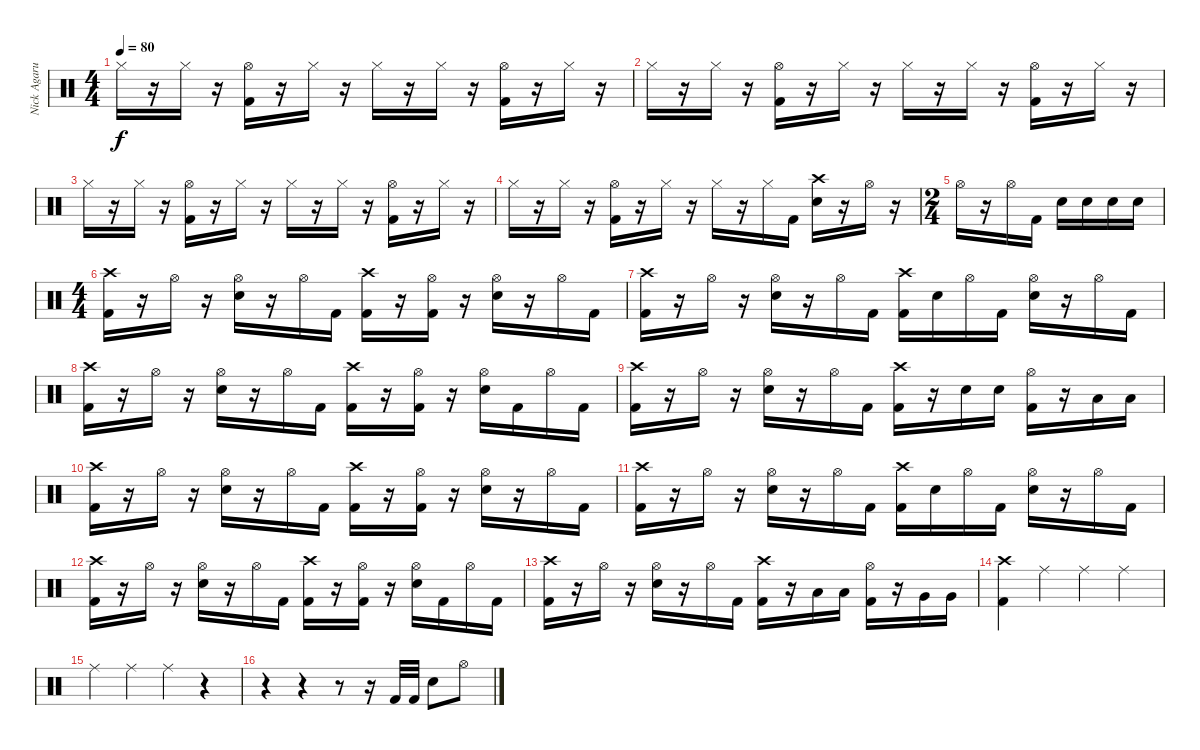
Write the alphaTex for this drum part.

\track ("Nick Agarua" "Nick Agaru") {instrument percussion}
\staff {score}
\articulation defaults
\ts (4 4)
\tempo 80
\clef neutral
\ks c "Hi-Hat (closed)".16{dy f}
r.16 "Hi-Hat (closed)".16 r.16 ("Hi-Hat (open)" "Kick (hit) 2").16 r.16 "Hi-Hat (closed)".16 r.16 "Hi-Hat (closed)".16 r.16 "Hi-Hat (closed)".16 r.16 ("Hi-Hat (open)" "Kick (hit) 2").16 r.16 "Hi-Hat (closed)".16 r.16 |
"Hi-Hat (closed)".16 r.16 "Hi-Hat (closed)".16 r.16 ("Hi-Hat (open)" "Kick (hit) 2").16 r.16 "Hi-Hat (closed)".16 r.16 "Hi-Hat (closed)".16 r.16 "Hi-Hat (closed)".16 r.16 ("Hi-Hat (open)" "Kick (hit) 2").16 r.16 "Hi-Hat (closed)".16 r.16 |
"Hi-Hat (closed)".16 r.16 "Hi-Hat (closed)".16 r.16 ("Hi-Hat (open)" "Kick (hit) 2").16 r.16 "Hi-Hat (closed)".16 r.16 "Hi-Hat (closed)".16 r.16 "Hi-Hat (closed)".16 r.16 ("Hi-Hat (open)" "Kick (hit) 2").16 r.16 "Hi-Hat (closed)".16 r.16 |
"Hi-Hat (closed)".16 r.16 "Hi-Hat (closed)".16 r.16 ("Hi-Hat (open)" "Kick (hit) 2").16 r.16 "Hi-Hat (closed)".16 r.16 "Hi-Hat (closed)".16 r.16 "Hi-Hat (closed)".16 "Kick (hit) 2".16 ("Crash high (hit)" "Electric Snare (hit)").16 r.16 "Hi-Hat (open)".16 r.16 |
\ts (2 4)
"Hi-Hat (open)".16 r.16 "Hi-Hat (open)".16 "Kick (hit) 2".16 "Electric Snare (hit)".16 "Electric Snare (hit)".16 "Electric Snare (hit)".16 "Electric Snare (hit)".16 |
\ts (4 4)
("Crash high (hit)" "Kick (hit) 2").16 r.16 "Hi-Hat (open)".16 r.16 ("Hi-Hat (open)" "Electric Snare (hit)").16 r.16 "Hi-Hat (open)".16 "Kick (hit) 2".16 ("Crash high (hit)" "Kick (hit) 2").16 r.16 ("Hi-Hat (open)" "Kick (hit) 2").16 r.16 ("Hi-Hat (open)" "Electric Snare (hit)").16 r.16 "Hi-Hat (open)".16 "Kick (hit) 2".16 |
("Crash high (hit)" "Kick (hit) 2").16 r.16 "Hi-Hat (open)".16 r.16 ("Hi-Hat (open)" "Electric Snare (hit)").16 r.16 "Hi-Hat (open)".16 "Kick (hit) 2".16 ("Crash high (hit)" "Kick (hit) 2").16 "Electric Snare (hit)".16 "Hi-Hat (open)".16 "Kick (hit) 2".16 ("Hi-Hat (open)" "Electric Snare (hit)").16 r.16 "Hi-Hat (open)".16 "Kick (hit) 2".16 |
("Crash high (hit)" "Kick (hit) 2").16 r.16 "Hi-Hat (open)".16 r.16 ("Hi-Hat (open)" "Electric Snare (hit)").16 r.16 "Hi-Hat (open)".16 "Kick (hit) 2".16 ("Crash high (hit)" "Kick (hit) 2").16 r.16 ("Hi-Hat (open)" "Kick (hit) 2").16 r.16 ("Hi-Hat (open)" "Electric Snare (hit)").16 "Kick (hit) 2".16 "Hi-Hat (open)".16 "Kick (hit) 2".16 |
("Crash high (hit)" "Kick (hit) 2").16 r.16 "Hi-Hat (open)".16 r.16 ("Hi-Hat (open)" "Electric Snare (hit)").16 r.16 "Hi-Hat (open)".16 "Kick (hit) 2".16 ("Crash high (hit)" "Kick (hit) 2").16 r.16 "Electric Snare (hit)".16 "Electric Snare (hit)".16 ("Hi-Hat (open)" "Kick (hit) 2").16 r.16 "Low Tom (hit)".16 "Low Tom (hit)".16 |
("Crash high (hit)" "Kick (hit) 2").16 r.16 "Hi-Hat (open)".16 r.16 ("Hi-Hat (open)" "Electric Snare (hit)").16 r.16 "Hi-Hat (open)".16 "Kick (hit) 2".16 ("Crash high (hit)" "Kick (hit) 2").16 r.16 ("Hi-Hat (open)" "Kick (hit) 2").16 r.16 ("Hi-Hat (open)" "Electric Snare (hit)").16 r.16 "Hi-Hat (open)".16 "Kick (hit) 2".16 |
("Crash high (hit)" "Kick (hit) 2").16 r.16 "Hi-Hat (open)".16 r.16 ("Hi-Hat (open)" "Electric Snare (hit)").16 r.16 "Hi-Hat (open)".16 "Kick (hit) 2".16 ("Crash high (hit)" "Kick (hit) 2").16 "Electric Snare (hit)".16 "Hi-Hat (open)".16 "Kick (hit) 2".16 ("Hi-Hat (open)" "Electric Snare (hit)").16 r.16 "Hi-Hat (open)".16 "Kick (hit) 2".16 |
("Crash high (hit)" "Kick (hit) 2").16 r.16 "Hi-Hat (open)".16 r.16 ("Hi-Hat (open)" "Electric Snare (hit)").16 r.16 "Hi-Hat (open)".16 "Kick (hit) 2".16 ("Crash high (hit)" "Kick (hit) 2").16 r.16 ("Hi-Hat (open)" "Kick (hit) 2").16 r.16 ("Hi-Hat (open)" "Electric Snare (hit)").16 "Kick (hit) 2".16 "Hi-Hat (open)".16 "Kick (hit) 2".16 |
("Crash high (hit)" "Kick (hit) 2").16 r.16 "Hi-Hat (open)".16 r.16 ("Hi-Hat (open)" "Electric Snare (hit)").16 r.16 "Hi-Hat (open)".16 "Kick (hit) 2".16 ("Crash high (hit)" "Kick (hit) 2").16 r.16 "Low Tom (hit)".16 "Low Tom (hit)".16 ("Hi-Hat (open)" "Kick (hit) 2").16 r.16 "Very Low Tom (hit)".16 "Very Low Tom (hit)".16 |
("Crash high (hit)" "Kick (hit) 2").4 "Ride (middle)".4 "Ride (middle)".4 "Ride (middle)".4 |
"Ride (middle)".4 "Ride (middle)".4 "Ride (middle)".4 r.4 |
r.4 r.4 r.8 r.16 "Kick (hit) 2".32 "Kick (hit) 2".32 "Electric Snare (hit)".8 "Hi-Hat (open)".8
